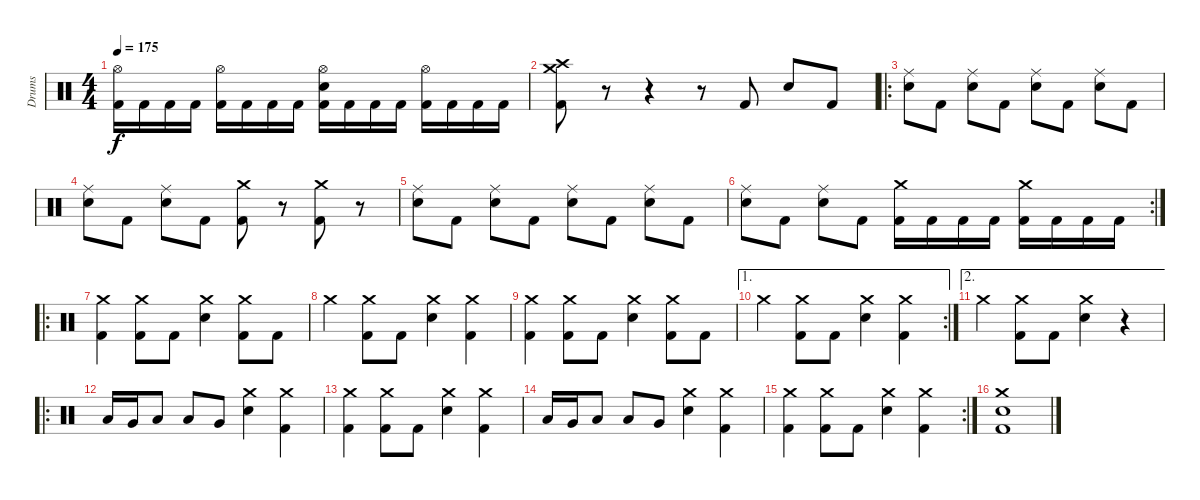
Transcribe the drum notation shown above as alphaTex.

\track ("Drums" "Drums") {instrument percussion}
\staff {score}
\articulation defaults
\ts (4 4)
\tempo 175
\clef neutral
\ks c
("Hi-Hat (open)" "Kick (hit) 2").16{dy f} "Kick (hit) 2".16 "Kick (hit) 2".16 "Kick (hit) 2".16 ("Hi-Hat (open)" "Kick (hit) 2").16 "Kick (hit) 2".16 "Kick (hit) 2".16 "Kick (hit) 2".16 ("Hi-Hat (open)" "Snare (hit) 2" "Kick (hit) 2").16 "Kick (hit) 2".16 "Kick (hit) 2".16 "Kick (hit) 2".16 ("Hi-Hat (open)" "Kick (hit) 2").16 "Kick (hit) 2".16 "Kick (hit) 2".16 "Kick (hit) 2".16 |
("Crash medium (hit)" "Crash high (hit)" "Kick (hit) 2").8 r.8 r.4 r.8 "Kick (hit) 2".8 "Snare (hit) 2".8 "Kick (hit) 2".8 |
\ro
("Ride (middle)" "Snare (hit) 2").8 "Kick (hit) 2".8 ("Ride (middle)" "Snare (hit) 2").8 "Kick (hit) 2".8 ("Ride (middle)" "Snare (hit) 2").8 "Kick (hit) 2".8 ("Ride (middle)" "Snare (hit) 2").8 "Kick (hit) 2".8 |
("Ride (middle)" "Snare (hit) 2").8 "Kick (hit) 2".8 ("Ride (middle)" "Snare (hit) 2").8 "Kick (hit) 2".8 ("Crash medium (hit)" "Kick (hit) 2").8 r.8 ("Crash medium (hit)" "Kick (hit) 2").8 r.8 |
("Ride (middle)" "Snare (hit) 2").8 "Kick (hit) 2".8 ("Ride (middle)" "Snare (hit) 2").8 "Kick (hit) 2".8 ("Ride (middle)" "Snare (hit) 2").8 "Kick (hit) 2".8 ("Ride (middle)" "Snare (hit) 2").8 "Kick (hit) 2".8 |
\rc 2
("Ride (middle)" "Snare (hit) 2").8 "Kick (hit) 2".8 ("Ride (middle)" "Snare (hit) 2").8 "Kick (hit) 2".8 ("Crash medium (hit)" "Kick (hit) 2").16 "Kick (hit) 2".16 "Kick (hit) 2".16 "Kick (hit) 2".16 ("Crash medium (hit)" "Kick (hit) 2").16 "Kick (hit) 2".16 "Kick (hit) 2".16 "Kick (hit) 2".16 |
\ro
("Crash medium (hit)" "Kick (hit) 2").4 ("Crash medium (hit)" "Kick (hit) 2").8 "Kick (hit) 2".8 ("Crash medium (hit)" "Snare (hit) 2").4 ("Crash medium (hit)" "Kick (hit) 2").8 "Kick (hit) 2".8 |
"Crash medium (hit)".4 ("Crash medium (hit)" "Kick (hit) 2").8 "Kick (hit) 2".8 ("Crash medium (hit)" "Snare (hit) 2").4 ("Crash medium (hit)" "Kick (hit) 2").4 |
("Crash medium (hit)" "Kick (hit) 2").4 ("Crash medium (hit)" "Kick (hit) 2").8 "Kick (hit) 2".8 ("Crash medium (hit)" "Snare (hit) 2").4 ("Crash medium (hit)" "Kick (hit) 2").8 "Kick (hit) 2".8 |
\ae 1
\rc 2 "Crash medium (hit)".4
("Crash medium (hit)" "Kick (hit) 2").8 "Kick (hit) 2".8 ("Crash medium (hit)" "Snare (hit) 2").4 ("Crash medium (hit)" "Kick (hit) 2").4 |
\ae 2 "Crash medium (hit)".4
("Crash medium (hit)" "Kick (hit) 2").8 "Kick (hit) 2".8 ("Crash medium (hit)" "Snare (hit) 2").4 r.4 |
\ro "Low Tom (hit)".16 "Very Low Tom (hit)".16 "Low Floor Tom (hit)".8 "Low Tom (hit)".8 "Very Low Tom (hit)".8
("Crash medium (hit)" "Snare (hit) 2").4 ("Crash medium (hit)" "Kick (hit) 2").4 |
("Crash medium (hit)" "Kick (hit) 2").4 ("Crash medium (hit)" "Kick (hit) 2").8 "Kick (hit) 2".8 ("Crash medium (hit)" "Snare (hit) 2").4 ("Crash medium (hit)" "Kick (hit) 2").4 |
"Low Tom (hit)".16 "Very Low Tom (hit)".16 "Low Floor Tom (hit)".8 "Low Tom (hit)".8 "Very Low Tom (hit)".8 ("Crash medium (hit)" "Snare (hit) 2").4 ("Crash medium (hit)" "Kick (hit) 2").4 |
\rc 2
("Crash medium (hit)" "Kick (hit) 2").4 ("Crash medium (hit)" "Kick (hit) 2").8 "Kick (hit) 2".8 ("Crash medium (hit)" "Snare (hit) 2").4 ("Crash medium (hit)" "Kick (hit) 2").4 |
("Crash medium (hit)" "Snare (hit) 2" "Kick (hit) 2").1
